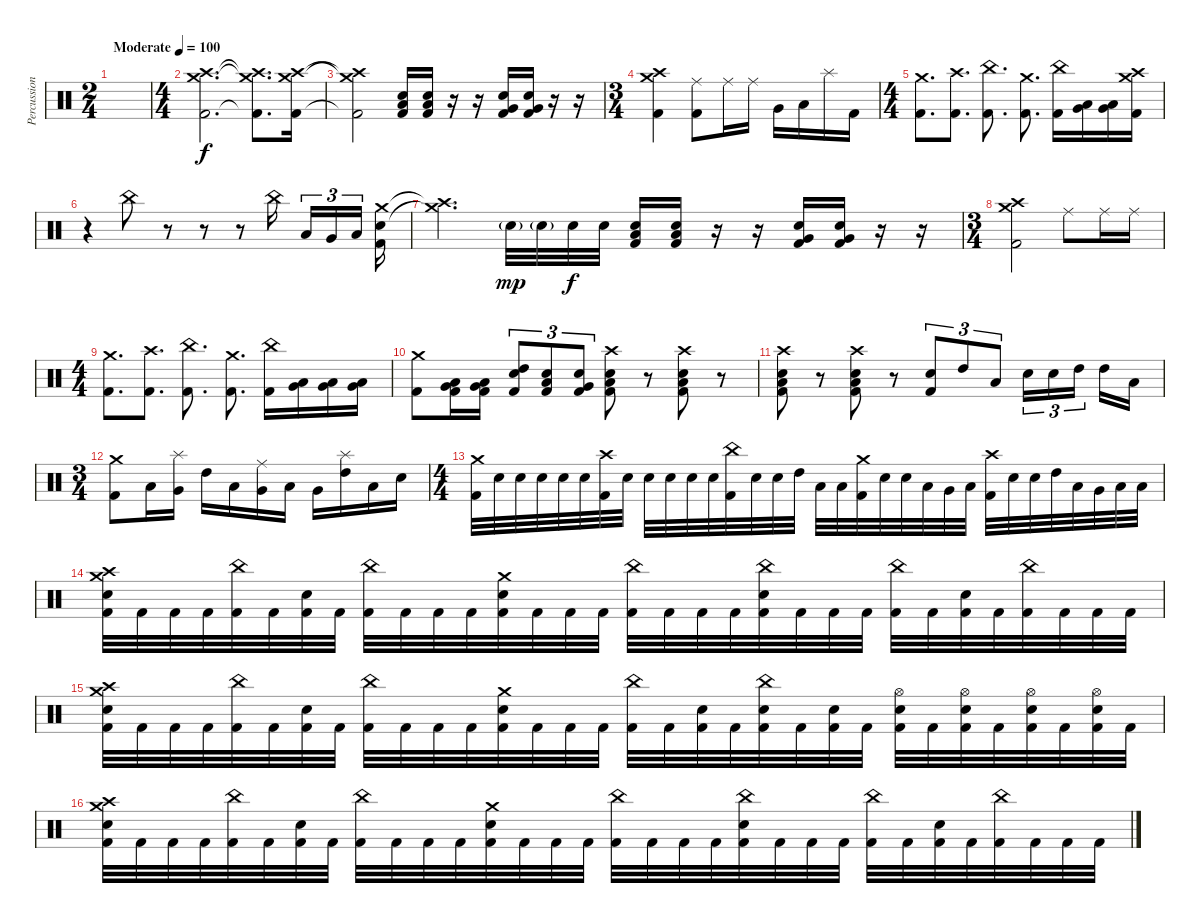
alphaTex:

\track ("Percussion" "Percussion") {mute instrument percussion}
\staff {score}
\articulation defaults
\ts (2 4)
\tempo (100 "Moderate")
\clef neutral
\ks c
|
\ts (4 4)
("Crash medium (hit)" "Crash high (hit)" "Kick (hit) 2").2{d} ("Crash medium (hit)"{t} "Crash high (hit)"{t} "Kick (hit) 2"{t}).8{d} ("Crash medium (hit)" "Crash high (hit)" "Kick (hit) 2").16 |
("Crash high (hit)"{t} "Crash medium (hit)"{t} "Kick (hit) 2"{t}).2 ("Low Tom (hit)" "Electric Snare (hit)" "Kick (hit) 2").16 ("Low Tom (hit)" "Electric Snare (hit)" "Kick (hit) 2").16 r.16 r.16 ("Very Low Tom (hit)" "Electric Snare (hit)" "Kick (hit) 2").16 ("Very Low Tom (hit)" "Electric Snare (hit)" "Kick (hit) 2").16 r.16 r.16 |
\ts (3 4)
("Crash medium (hit)" "Crash high (hit)" "Kick (hit) 2").4 ("Ride (middle)" "Kick (hit) 2").8 "Ride (middle)".16 "Ride (middle)".16 "Very Low Tom (hit)".16 "Low Floor Tom (hit)".16 "Splash (hit)".16 "Kick (hit) 2".16 |
\ts (4 4)
("Crash medium (hit)" "Kick (hit) 2").8{d} ("Crash high (hit)" "Kick (hit) 2").8{d} ("China (hit)" "Kick (hit) 2").8{d} ("Crash medium (hit)" "Kick (hit) 2").8{d} ("China (hit)" "Kick (hit) 2").16 ("Low Tom (hit)" "Very Low Tom (hit)").16 ("Low Tom (hit)" "Very Low Tom (hit)").16 ("Crash medium (hit)" "Crash high (hit)" "Kick (hit) 2").16 |
r.4 "China (hit)".8 r.8 r.8 r.8 "China (hit)".16{beam splitsecondary} "Low Tom (hit)".16{tu (3 2)} "Very Low Tom (hit)".16{tu (3 2)} "Low Floor Tom (hit)".16{tu (3 2) beam splitsecondary} ("Crash medium (hit)" "Electric Snare (hit)" "Kick (hit) 2").16 |
("Crash high (hit)"{t} "Crash medium (hit)"{t}).4{d} "Electric Snare (hit)"{g}.32{dy mp} "Electric Snare (hit)"{g}.32 "Electric Snare (hit)".32{dy f} "Electric Snare (hit)".32 ("Low Tom (hit)" "Electric Snare (hit)" "Kick (hit) 2").16 ("Low Tom (hit)" "Electric Snare (hit)" "Kick (hit) 2").16 r.16 r.16 ("Very Low Tom (hit)" "Electric Snare (hit)" "Kick (hit) 2").16 ("Very Low Tom (hit)" "Electric Snare (hit)" "Kick (hit) 2").16 r.16 r.16 |
\ts (3 4)
("Crash medium (hit)" "Crash high (hit)" "Kick (hit) 2").2 "Ride (middle)".8 "Ride (middle)".16 "Ride (middle)".16 |
\ts (4 4)
("Crash medium (hit)" "Kick (hit) 2").8{d} ("Crash high (hit)" "Kick (hit) 2").8{d} ("China (hit)" "Kick (hit) 2").8{d} ("Crash medium (hit)" "Kick (hit) 2").8{d} ("China (hit)" "Kick (hit) 2").16 ("Low Tom (hit)" "Very Low Tom (hit)").16 ("Low Tom (hit)" "Very Low Tom (hit)").16 ("Very Low Tom (hit)" "Low Floor Tom (hit)").16 |
("Crash medium (hit)" "Kick (hit) 2").8 ("Low Tom (hit)" "Very Low Tom (hit)" "Kick (hit) 2").16 ("Low Tom (hit)" "Very Low Tom (hit)" "Kick (hit) 2").16 ("High Tom (hit)" "Electric Snare (hit)" "Kick (hit) 2").8{tu (3 2)} ("Low Tom (hit)" "Electric Snare (hit)" "Kick (hit) 2").8{tu (3 2)} ("Very Low Tom (hit)" "Electric Snare (hit)" "Kick (hit) 2").8{tu (3 2)} ("Crash high (hit)" "Electric Snare (hit)" "Low Tom (hit)" "Kick (hit) 2").8 r.8 ("Crash high (hit)" "Electric Snare (hit)" "Low Tom (hit)" "Kick (hit) 2").8 r.8 |
("Crash high (hit)" "Electric Snare (hit)" "Low Tom (hit)" "Kick (hit) 2").8 r.8 ("Crash high (hit)" "Electric Snare (hit)" "Low Tom (hit)" "Kick (hit) 2").8 r.8 ("Electric Snare (hit)" "Kick (hit) 2").8{tu (3 2)} "High Tom (hit)".8{tu (3 2)} "Low Tom (hit)".8{tu (3 2)} "Electric Snare (hit)".16{tu (3 2)} "Electric Snare (hit)".16{tu (3 2)} "High Tom (hit)".16{tu (3 2) beam splitsecondary} "High Tom (hit)".16 "Low Tom (hit)".16 |
\ts (3 4)
("Crash medium (hit)" "Kick (hit) 2").8 "Low Tom (hit)".16 ("Splash (hit)" "Very Low Tom (hit)").16 "High Tom (hit)".16 "Low Tom (hit)".16 ("Ride (middle)" "Very Low Tom (hit)").16 "Low Floor Tom (hit)".16 "Very Low Tom (hit)".16 ("Splash (hit)" "High Tom (hit)").16 "Low Tom (hit)".16 "Electric Snare (hit)".16 |
\ts (4 4)
("Crash medium (hit)" "Kick (hit) 2").32 "Electric Snare (hit)".32 "Electric Snare (hit)".32 "Electric Snare (hit)".32 "Electric Snare (hit)".32 "Electric Snare (hit)".32 ("Crash high (hit)" "Kick (hit) 2").32 "Electric Snare (hit)".32 "Electric Snare (hit)".32 "Electric Snare (hit)".32 "Electric Snare (hit)".32 "Electric Snare (hit)".32 ("China (hit)" "Kick (hit) 2").32 "Electric Snare (hit)".32 "Electric Snare (hit)".32 "High Tom (hit)".32 "Low Tom (hit)".32 "Low Tom (hit)".32 ("Crash medium (hit)" "Kick (hit) 2").32 "Electric Snare (hit)".32 "Electric Snare (hit)".32 "Low Tom (hit)".32 "Very Low Tom (hit)".32 "Low Floor Tom (hit)".32 ("Crash high (hit)" "Kick (hit) 2").32 "Electric Snare (hit)".32 "Electric Snare (hit)".32 "High Tom (hit)".32 "Low Tom (hit)".32 "Very Low Tom (hit)".32 "Low Floor Tom (hit)".32 "Low Floor Tom (hit)".32 |
("Crash high (hit)" "Crash medium (hit)" "Electric Snare (hit)" "Kick (hit) 2").32 "Kick (hit) 2".32 "Kick (hit) 2".32 "Kick (hit) 2".32 ("China (hit)" "Kick (hit) 2").32 "Kick (hit) 2".32 ("Electric Snare (hit)" "Kick (hit) 2").32 "Kick (hit) 2".32 ("China (hit)" "Kick (hit) 2").32 "Kick (hit) 2".32 "Kick (hit) 2".32 "Kick (hit) 2".32 ("Crash medium (hit)" "Electric Snare (hit)" "Kick (hit) 2").32 "Kick (hit) 2".32 "Kick (hit) 2".32 "Kick (hit) 2".32 ("China (hit)" "Kick (hit) 2").32 "Kick (hit) 2".32 "Kick (hit) 2".32 "Kick (hit) 2".32 ("China (hit)" "Electric Snare (hit)" "Kick (hit) 2").32 "Kick (hit) 2".32 "Kick (hit) 2".32 "Kick (hit) 2".32 ("China (hit)" "Kick (hit) 2").32 "Kick (hit) 2".32 ("Electric Snare (hit)" "Kick (hit) 2").32 "Kick (hit) 2".32 ("China (hit)" "Kick (hit) 2").32 "Kick (hit) 2".32 "Kick (hit) 2".32 "Kick (hit) 2".32 |
("Crash high (hit)" "Crash medium (hit)" "Electric Snare (hit)" "Kick (hit) 2").32 "Kick (hit) 2".32 "Kick (hit) 2".32 "Kick (hit) 2".32 ("China (hit)" "Kick (hit) 2").32 "Kick (hit) 2".32 ("Electric Snare (hit)" "Kick (hit) 2").32 "Kick (hit) 2".32 ("China (hit)" "Kick (hit) 2").32 "Kick (hit) 2".32 "Kick (hit) 2".32 "Kick (hit) 2".32 ("Crash medium (hit)" "Electric Snare (hit)" "Kick (hit) 2").32 "Kick (hit) 2".32 "Kick (hit) 2".32 "Kick (hit) 2".32 ("China (hit)" "Kick (hit) 2").32 "Kick (hit) 2".32 ("Electric Snare (hit)" "Kick (hit) 2").32 "Kick (hit) 2".32 ("China (hit)" "Electric Snare (hit)" "Kick (hit) 2").32 "Kick (hit) 2".32 ("Electric Snare (hit)" "Kick (hit) 2").32 "Kick (hit) 2".32 ("Hi-Hat (open)" "Electric Snare (hit)" "Kick (hit) 2").32 "Kick (hit) 2".32 ("Hi-Hat (open)" "Electric Snare (hit)" "Kick (hit) 2").32 "Kick (hit) 2".32 ("Hi-Hat (open)" "Electric Snare (hit)" "Kick (hit) 2").32 "Kick (hit) 2".32 ("Hi-Hat (open)" "Electric Snare (hit)" "Kick (hit) 2").32 "Kick (hit) 2".32 |
("Crash high (hit)" "Crash medium (hit)" "Electric Snare (hit)" "Kick (hit) 2").32 "Kick (hit) 2".32 "Kick (hit) 2".32 "Kick (hit) 2".32 ("China (hit)" "Kick (hit) 2").32 "Kick (hit) 2".32 ("Electric Snare (hit)" "Kick (hit) 2").32 "Kick (hit) 2".32 ("China (hit)" "Kick (hit) 2").32 "Kick (hit) 2".32 "Kick (hit) 2".32 "Kick (hit) 2".32 ("Crash medium (hit)" "Electric Snare (hit)" "Kick (hit) 2").32 "Kick (hit) 2".32 "Kick (hit) 2".32 "Kick (hit) 2".32 ("China (hit)" "Kick (hit) 2").32 "Kick (hit) 2".32 "Kick (hit) 2".32 "Kick (hit) 2".32 ("China (hit)" "Electric Snare (hit)" "Kick (hit) 2").32 "Kick (hit) 2".32 "Kick (hit) 2".32 "Kick (hit) 2".32 ("China (hit)" "Kick (hit) 2").32 "Kick (hit) 2".32 ("Electric Snare (hit)" "Kick (hit) 2").32 "Kick (hit) 2".32 ("China (hit)" "Kick (hit) 2").32 "Kick (hit) 2".32 "Kick (hit) 2".32 "Kick (hit) 2".32
